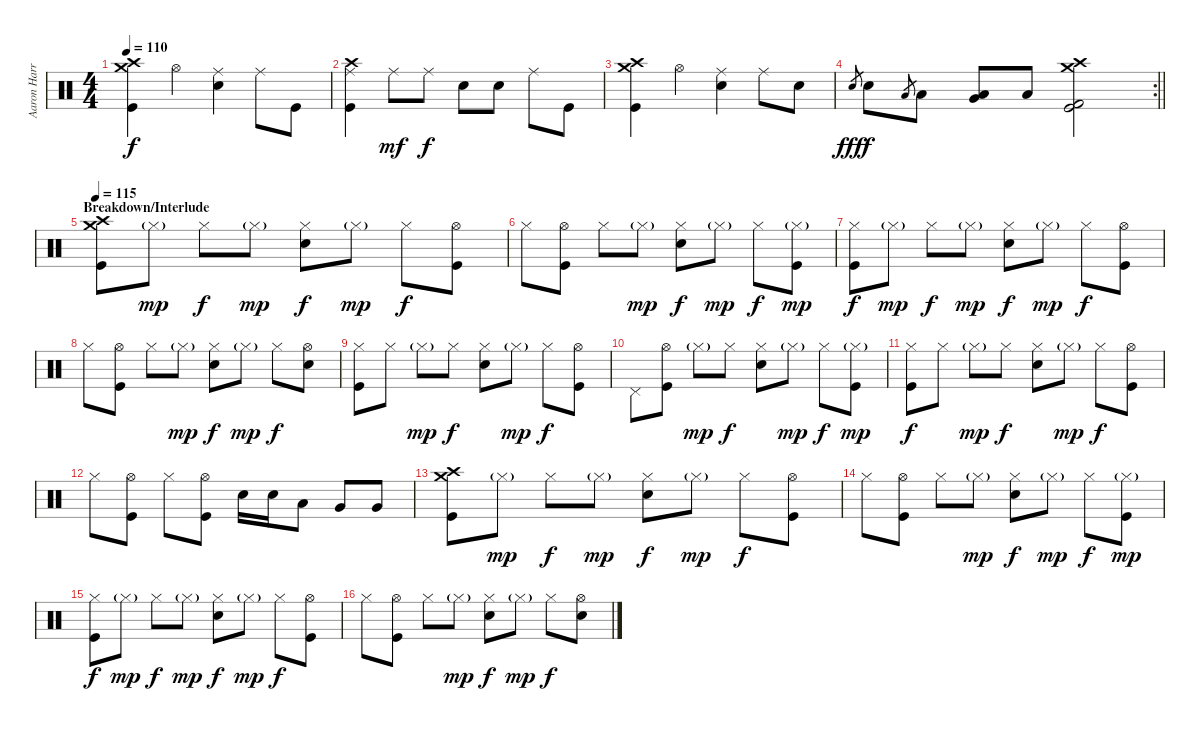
\track ("Aaron Harris" "Aaron Harr") {instrument percussion}
\staff {score}
\articulation defaults
\ts (4 4)
\tempo 110
\clef neutral
\ks c
("Crash medium (hit)" "Crash high (hit)" "Kick (hit)").4{dy f} "Hi-Hat (open)".4 ("Ride (middle)" "Electric Snare (hit)").4 "Ride (middle)".8 "Kick (hit)".8 |
("Crash high (hit)" "Ride (middle)" "Kick (hit)").4 "Ride (middle)".8{dy mf} "Ride (middle)".8{dy f} "Electric Snare (hit)".8 "Electric Snare (hit)".8 "Ride (middle)".8 "Kick (hit)".8 |
("Crash medium (hit)" "Crash high (hit)" "Kick (hit)").4 "Hi-Hat (open)".4 ("Ride (middle)" "Electric Snare (hit)").4 "Ride (middle)".8 "Electric Snare (hit)".8 |
\rc 2
\barLineRight lightlight "Electric Snare (hit)".8{gr dy fff} "Electric Snare (hit)".8{dy f} "Low Tom (hit)".8{gr} "Low Tom (hit)".8
("Very Low Tom (hit)" "Low Floor Tom (hit)").8 "Low Floor Tom (hit)".8 ("Crash medium (hit)" "Crash high (hit)" "Kick (hit) 2" "Kick (hit)").2 |
\section ("" "Breakdown/Interlude")
\tempo 115
("Crash medium (hit)" "Crash high (hit)" "Kick (hit)").8 "Hi-Hat (closed)"{g}.8{dy mp} "Hi-Hat (closed)".8{dy f} "Hi-Hat (closed)"{g}.8{dy mp} ("Hi-Hat (closed)" "Electric Snare (hit)").8{dy f} "Hi-Hat (closed)"{g}.8{dy mp} "Hi-Hat (closed)".8{dy f} ("Hi-Hat (open)" "Kick (hit)").8 |
"Hi-Hat (closed)".8 ("Hi-Hat (open)" "Kick (hit)").8 "Hi-Hat (closed)".8 "Hi-Hat (closed)"{g}.8{dy mp} ("Hi-Hat (closed)" "Electric Snare (hit)").8{dy f} "Hi-Hat (closed)"{g}.8{dy mp} "Hi-Hat (closed)".8{dy f} ("Hi-Hat (closed)"{g} "Kick (hit)").8{dy mp} |
("Hi-Hat (closed)" "Kick (hit)").8{dy f} "Hi-Hat (closed)"{g}.8{dy mp} "Hi-Hat (closed)".8{dy f} "Hi-Hat (closed)"{g}.8{dy mp} ("Hi-Hat (closed)" "Electric Snare (hit)").8{dy f} "Hi-Hat (closed)"{g}.8{dy mp} "Hi-Hat (closed)".8{dy f} ("Hi-Hat (open)" "Kick (hit)").8 |
"Hi-Hat (closed)".8 ("Hi-Hat (open)" "Kick (hit)").8 "Hi-Hat (closed)".8 "Hi-Hat (closed)"{g}.8{dy mp} ("Hi-Hat (closed)" "Electric Snare (hit)").8{dy f} "Hi-Hat (closed)"{g}.8{dy mp} "Hi-Hat (closed)".8{dy f} ("Hi-Hat (open)" "Electric Snare (hit)").8 |
("Hi-Hat (closed)" "Kick (hit)").8 "Hi-Hat (closed)".8 "Hi-Hat (closed)"{g}.8{dy mp} "Hi-Hat (closed)".8{dy f} ("Hi-Hat (closed)" "Electric Snare (hit)").8 "Hi-Hat (closed)"{g}.8{dy mp} "Hi-Hat (closed)".8{dy f} ("Hi-Hat (open)" "Kick (hit)").8 |
"Pedal Hi-Hat (hit)".8 ("Hi-Hat (open)" "Kick (hit)").8 "Hi-Hat (closed)"{g}.8{dy mp} "Hi-Hat (closed)".8{dy f} ("Hi-Hat (closed)" "Electric Snare (hit)").8 "Hi-Hat (closed)"{g}.8{dy mp} "Hi-Hat (closed)".8{dy f} ("Hi-Hat (closed)"{g} "Kick (hit)").8{dy mp} |
("Hi-Hat (closed)" "Kick (hit)").8{dy f} "Hi-Hat (closed)".8 "Hi-Hat (closed)"{g}.8{dy mp} "Hi-Hat (closed)".8{dy f} ("Hi-Hat (closed)" "Electric Snare (hit)").8 "Hi-Hat (closed)"{g}.8{dy mp} "Hi-Hat (closed)".8{dy f} ("Hi-Hat (open)" "Kick (hit)").8 |
"Hi-Hat (closed)".8 ("Hi-Hat (open)" "Kick (hit)").8 "Hi-Hat (closed)".8 ("Hi-Hat (open)" "Kick (hit)").8 "Electric Snare (hit)".16 "Electric Snare (hit)".16 "Low Tom (hit)".8 "Very Low Tom (hit)".8 "Very Low Tom (hit)".8 |
("Crash medium (hit)" "Crash high (hit)" "Kick (hit)").8 "Hi-Hat (closed)"{g}.8{dy mp} "Hi-Hat (closed)".8{dy f} "Hi-Hat (closed)"{g}.8{dy mp} ("Hi-Hat (closed)" "Electric Snare (hit)").8{dy f} "Hi-Hat (closed)"{g}.8{dy mp} "Hi-Hat (closed)".8{dy f} ("Hi-Hat (open)" "Kick (hit)").8 |
"Hi-Hat (closed)".8 ("Hi-Hat (open)" "Kick (hit)").8 "Hi-Hat (closed)".8 "Hi-Hat (closed)"{g}.8{dy mp} ("Hi-Hat (closed)" "Electric Snare (hit)").8{dy f} "Hi-Hat (closed)"{g}.8{dy mp} "Hi-Hat (closed)".8{dy f} ("Hi-Hat (closed)"{g} "Kick (hit)").8{dy mp} |
("Hi-Hat (closed)" "Kick (hit)").8{dy f} "Hi-Hat (closed)"{g}.8{dy mp} "Hi-Hat (closed)".8{dy f} "Hi-Hat (closed)"{g}.8{dy mp} ("Hi-Hat (closed)" "Electric Snare (hit)").8{dy f} "Hi-Hat (closed)"{g}.8{dy mp} "Hi-Hat (closed)".8{dy f} ("Hi-Hat (open)" "Kick (hit)").8 |
"Hi-Hat (closed)".8 ("Hi-Hat (open)" "Kick (hit)").8 "Hi-Hat (closed)".8 "Hi-Hat (closed)"{g}.8{dy mp} ("Hi-Hat (closed)" "Electric Snare (hit)").8{dy f} "Hi-Hat (closed)"{g}.8{dy mp} "Hi-Hat (closed)".8{dy f} ("Hi-Hat (open)" "Electric Snare (hit)").8
